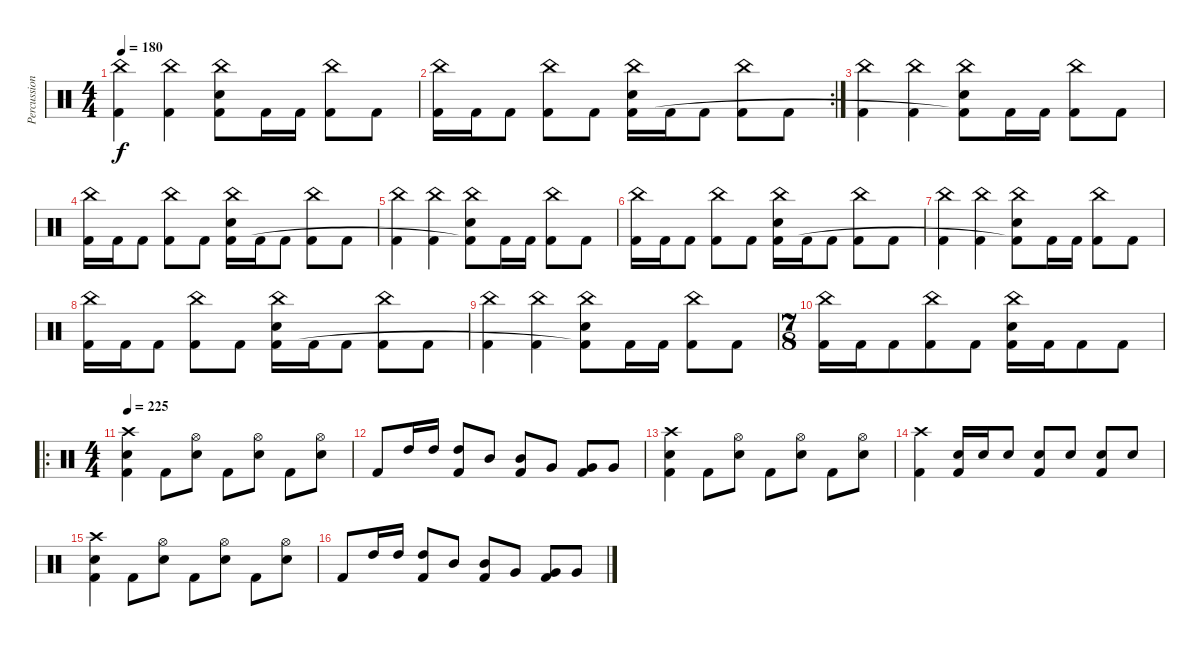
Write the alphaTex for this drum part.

\track ("Percussion" "Percussion") {instrument percussion}
\staff {score}
\articulation defaults
\ts (4 4)
\tempo 180
\clef neutral
\ks c
("China (hit)" "Kick (hit) 2").4{dy f} ("China (hit)" "Kick (hit) 2").4 ("China (hit)" "Snare (hit) 2" "Kick (hit) 2"{t}).8 "Kick (hit) 2".16 "Kick (hit) 2".16 ("China (hit)" "Kick (hit) 2").8 "Kick (hit) 2".8 |
\rc 2
("China (hit)" "Kick (hit) 2").16 "Kick (hit) 2".16 "Kick (hit) 2".8 ("China (hit)" "Kick (hit) 2").8 "Kick (hit) 2".8 ("China (hit)" "Snare (hit) 2" "Kick (hit) 2").16 "Kick (hit) 2".16 "Kick (hit) 2".8 ("China (hit)" "Kick (hit) 2").8 "Kick (hit) 2".8 |
("China (hit)" "Kick (hit) 2").4 ("China (hit)" "Kick (hit) 2").4 ("China (hit)" "Snare (hit) 2" "Kick (hit) 2"{t}).8 "Kick (hit) 2".16 "Kick (hit) 2".16 ("China (hit)" "Kick (hit) 2").8 "Kick (hit) 2".8 |
("China (hit)" "Kick (hit) 2").16 "Kick (hit) 2".16 "Kick (hit) 2".8 ("China (hit)" "Kick (hit) 2").8 "Kick (hit) 2".8 ("China (hit)" "Snare (hit) 2" "Kick (hit) 2").16 "Kick (hit) 2".16 "Kick (hit) 2".8 ("China (hit)" "Kick (hit) 2").8 "Kick (hit) 2".8 |
("China (hit)" "Kick (hit) 2").4 ("China (hit)" "Kick (hit) 2").4 ("China (hit)" "Snare (hit) 2" "Kick (hit) 2"{t}).8 "Kick (hit) 2".16 "Kick (hit) 2".16 ("China (hit)" "Kick (hit) 2").8 "Kick (hit) 2".8 |
("China (hit)" "Kick (hit) 2").16 "Kick (hit) 2".16 "Kick (hit) 2".8 ("China (hit)" "Kick (hit) 2").8 "Kick (hit) 2".8 ("China (hit)" "Snare (hit) 2" "Kick (hit) 2").16 "Kick (hit) 2".16 "Kick (hit) 2".8 ("China (hit)" "Kick (hit) 2").8 "Kick (hit) 2".8 |
("China (hit)" "Kick (hit) 2").4 ("China (hit)" "Kick (hit) 2").4 ("China (hit)" "Snare (hit) 2" "Kick (hit) 2"{t}).8 "Kick (hit) 2".16 "Kick (hit) 2".16 ("China (hit)" "Kick (hit) 2").8 "Kick (hit) 2".8 |
("China (hit)" "Kick (hit) 2").16 "Kick (hit) 2".16 "Kick (hit) 2".8 ("China (hit)" "Kick (hit) 2").8 "Kick (hit) 2".8 ("China (hit)" "Snare (hit) 2" "Kick (hit) 2").16 "Kick (hit) 2".16 "Kick (hit) 2".8 ("China (hit)" "Kick (hit) 2").8 "Kick (hit) 2".8 |
("China (hit)" "Kick (hit) 2").4 ("China (hit)" "Kick (hit) 2").4 ("China (hit)" "Snare (hit) 2" "Kick (hit) 2"{t}).8 "Kick (hit) 2".16 "Kick (hit) 2".16 ("China (hit)" "Kick (hit) 2").8 "Kick (hit) 2".8 |
\ts (7 8)
("China (hit)" "Kick (hit) 2").16 "Kick (hit) 2".16 "Kick (hit) 2".8 ("China (hit)" "Kick (hit) 2").8 "Kick (hit) 2".8 ("China (hit)" "Snare (hit) 2" "Kick (hit) 2").16 "Kick (hit) 2".16 "Kick (hit) 2".8 "Kick (hit) 2".8 |
\ro
\ts (4 4)
\tempo 225
("Crash high (hit)" "Snare (hit) 2" "Kick (hit) 2").4 "Kick (hit) 2".8 ("Hi-Hat (open)" "Snare (hit) 2").8 "Kick (hit) 2".8 ("Hi-Hat (open)" "Snare (hit) 2").8 "Kick (hit) 2".8 ("Hi-Hat (open)" "Snare (hit) 2").8 |
"Kick (hit) 2".8 "High Tom (hit)".16 "High Tom (hit)".16 ("High Tom (hit)" "Kick (hit) 2").8 "Mid Tom (hit)".8 ("Mid Tom (hit)" "Kick (hit) 2").8 "Very Low Tom (hit)".8 ("Very Low Tom (hit)" "Kick (hit) 2").8 "Very Low Tom (hit)".8 |
("Crash high (hit)" "Snare (hit) 2" "Kick (hit) 2").4 "Kick (hit) 2".8 ("Hi-Hat (open)" "Snare (hit) 2").8 "Kick (hit) 2".8 ("Hi-Hat (open)" "Snare (hit) 2").8 "Kick (hit) 2".8 ("Hi-Hat (open)" "Snare (hit) 2").8 |
("Crash high (hit)" "Kick (hit) 2").4 ("Snare (hit) 2" "Kick (hit) 2").16 "Snare (hit) 2".16 "Snare (hit) 2".8 ("Snare (hit) 2" "Kick (hit) 2").8 "Snare (hit) 2".8 ("Snare (hit) 2" "Kick (hit) 2").8 "Snare (hit) 2".8 |
("Crash high (hit)" "Snare (hit) 2" "Kick (hit) 2").4 "Kick (hit) 2".8 ("Hi-Hat (open)" "Snare (hit) 2").8 "Kick (hit) 2".8 ("Hi-Hat (open)" "Snare (hit) 2").8 "Kick (hit) 2".8 ("Hi-Hat (open)" "Snare (hit) 2").8 |
"Kick (hit) 2".8 "High Tom (hit)".16 "High Tom (hit)".16 ("High Tom (hit)" "Kick (hit) 2").8 "Mid Tom (hit)".8 ("Mid Tom (hit)" "Kick (hit) 2").8 "Very Low Tom (hit)".8 ("Very Low Tom (hit)" "Kick (hit) 2").8 "Very Low Tom (hit)".8
